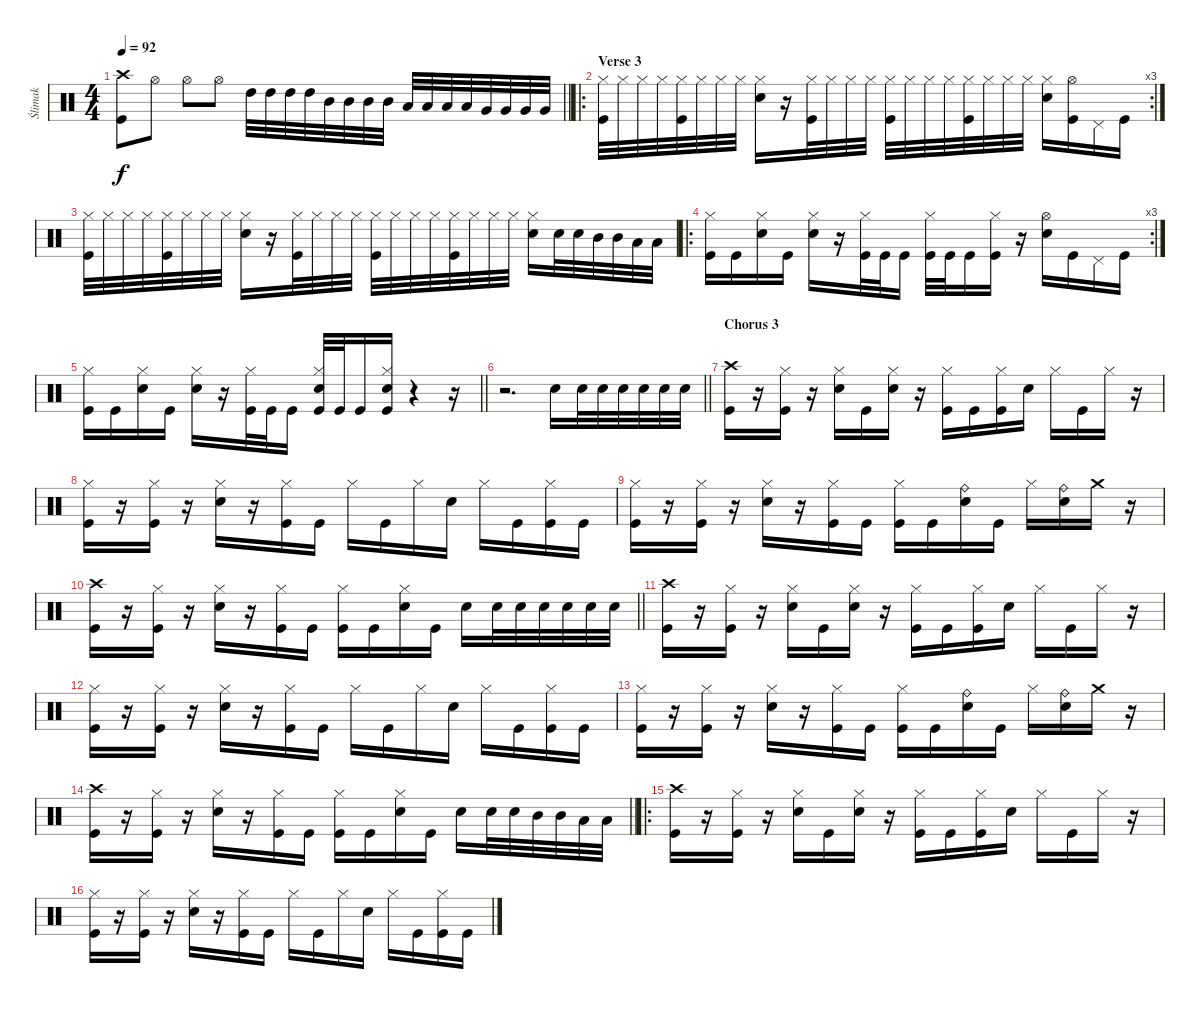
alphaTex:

\track ("Ślimak" "Ślimak") {instrument percussion}
\staff {score}
\articulation defaults
\ts (4 4)
\tempo 92
\clef neutral
\barLineRight lightlight
\ks c
("Crash high (hit)" "Kick (hit)").8{dy f} "Hi-Hat (open)".8 "Hi-Hat (open)".8 "Hi-Hat (open)".8 "High Tom (hit)".32 "High Tom (hit)".32 "High Tom (hit)".32 "High Tom (hit)".32 "Mid Tom (hit)".32 "Mid Tom (hit)".32 "Mid Tom (hit)".32 "Mid Tom (hit)".32 "Low Tom (hit)".32 "Low Tom (hit)".32 "Low Tom (hit)".32 "Low Tom (hit)".32 "Very Low Tom (hit)".32 "Very Low Tom (hit)".32 "Very Low Tom (hit)".32 "Very Low Tom (hit)".32 |
\ro
\rc 3
\section ("" "Verse 3")
("Hi-Hat (closed)" "Kick (hit)").32 "Hi-Hat (closed)".32 "Hi-Hat (closed)".32 "Hi-Hat (closed)".32 ("Hi-Hat (closed)" "Kick (hit)").32 "Hi-Hat (closed)".32 "Hi-Hat (closed)".32 "Hi-Hat (closed)".32 ("Hi-Hat (closed)" "Snare (hit) 2").16 r.16 ("Hi-Hat (closed)" "Kick (hit)").32 "Hi-Hat (closed)".32 "Hi-Hat (closed)".32 "Hi-Hat (closed)".32 ("Hi-Hat (closed)" "Kick (hit)").32 "Hi-Hat (closed)".32 "Hi-Hat (closed)".32 "Hi-Hat (closed)".32 ("Hi-Hat (closed)" "Kick (hit)").32 "Hi-Hat (closed)".32 "Hi-Hat (closed)".32 "Hi-Hat (closed)".32 ("Hi-Hat (closed)" "Snare (hit) 2").16 ("Hi-Hat (open)" "Kick (hit)").16 "Pedal Hi-Hat (hit)".16 "Kick (hit)".16 |
("Hi-Hat (closed)" "Kick (hit)").32 "Hi-Hat (closed)".32 "Hi-Hat (closed)".32 "Hi-Hat (closed)".32 ("Hi-Hat (closed)" "Kick (hit)").32 "Hi-Hat (closed)".32 "Hi-Hat (closed)".32 "Hi-Hat (closed)".32 ("Hi-Hat (closed)" "Snare (hit) 2").16 r.16 ("Hi-Hat (closed)" "Kick (hit)").32 "Hi-Hat (closed)".32 "Hi-Hat (closed)".32 "Hi-Hat (closed)".32 ("Hi-Hat (closed)" "Kick (hit)").32 "Hi-Hat (closed)".32 "Hi-Hat (closed)".32 "Hi-Hat (closed)".32 ("Hi-Hat (closed)" "Kick (hit)").32 "Hi-Hat (closed)".32 "Hi-Hat (closed)".32 "Hi-Hat (closed)".32 ("Hi-Hat (closed)" "Snare (hit) 2").16 "Snare (hit) 2".32 "Snare (hit) 2".32 "Mid Tom (hit)".32 "Mid Tom (hit)".32 "Low Tom (hit)".32 "Low Tom (hit)".32 |
\ro
\rc 3
("Hi-Hat (closed)" "Kick (hit)").16 "Kick (hit)".16 ("Hi-Hat (closed)" "Snare (hit) 2").16 "Kick (hit)".16 ("Hi-Hat (closed)" "Snare (hit) 2").16 r.16 ("Hi-Hat (closed)" "Kick (hit)").32 "Kick (hit)".32 "Kick (hit)".16 ("Hi-Hat (closed)" "Kick (hit)").32 "Kick (hit)".32 "Kick (hit)".16 ("Hi-Hat (closed)" "Kick (hit)").16 r.16 ("Hi-Hat (open)" "Snare (hit) 2").16 "Kick (hit)".16 "Pedal Hi-Hat (hit)".16 "Kick (hit)".16 |
\barLineRight lightlight
("Hi-Hat (closed)" "Kick (hit)").16 "Kick (hit)".16 ("Hi-Hat (closed)" "Snare (hit) 2").16 "Kick (hit)".16 ("Hi-Hat (closed)" "Snare (hit) 2").16 r.16 ("Hi-Hat (closed)" "Kick (hit)").32 "Kick (hit)".32 "Kick (hit)".16 ("Hi-Hat (closed)" "Snare (hit) 2" "Kick (hit)").32 "Kick (hit)".32 "Kick (hit)".16 ("Hi-Hat (closed)" "Snare (hit) 2" "Kick (hit)").16 r.4 r.16 |
\barLineRight lightlight
r.2{d} "Snare (hit) 2".16 "Snare (hit) 2".32 "Snare (hit) 2".32 "Snare (hit) 2".32 "Snare (hit) 2".32 "Snare (hit) 2".32 "Snare (hit) 2".32 |
\section ("" "Chorus 3")
("Crash high (hit)" "Kick (hit)").16 r.16 ("Hi-Hat (closed)" "Kick (hit)").16 r.16 ("Hi-Hat (closed)" "Snare (hit) 2").16 "Kick (hit)".16 ("Hi-Hat (closed)" "Snare (hit) 2").16 r.16 ("Hi-Hat (closed)" "Kick (hit)").16 "Kick (hit)".16 ("Hi-Hat (closed)" "Kick (hit)").16 "Snare (hit) 2".16 "Hi-Hat (closed)".16 "Kick (hit)".16 "Hi-Hat (closed)".16 r.16 |
("Hi-Hat (closed)" "Kick (hit)").16 r.16 ("Hi-Hat (closed)" "Kick (hit)").16 r.16 ("Hi-Hat (closed)" "Snare (hit) 2").16 r.16 ("Hi-Hat (closed)" "Kick (hit)").16 "Kick (hit)".16 "Hi-Hat (closed)".16 "Kick (hit)".16 "Hi-Hat (closed)".16 "Snare (hit) 2".16 "Hi-Hat (closed)".16 "Kick (hit)".16 ("Hi-Hat (closed)" "Kick (hit)").16 "Kick (hit)".16 |
("Hi-Hat (closed)" "Kick (hit)").16 r.16 ("Hi-Hat (closed)" "Kick (hit)").16 r.16 ("Hi-Hat (closed)" "Snare (hit) 2").16 r.16 ("Hi-Hat (closed)" "Kick (hit)").16 "Kick (hit)".16 ("Hi-Hat (closed)" "Kick (hit)").16 "Kick (hit)".16 ("Ride (bell)" "Snare (hit) 2").16 "Kick (hit)".16 "Hi-Hat (closed)".16 ("Ride (bell)" "Snare (hit) 2").16 "Crash medium (hit)".16 r.16 |
\barLineRight lightlight
("Crash high (hit)" "Kick (hit)").16 r.16 ("Hi-Hat (closed)" "Kick (hit)").16 r.16 ("Hi-Hat (closed)" "Snare (hit) 2").16 r.16 ("Hi-Hat (closed)" "Kick (hit)").16 "Kick (hit)".16 ("Hi-Hat (closed)" "Kick (hit)").16 "Kick (hit)".16 ("Hi-Hat (closed)" "Snare (hit) 2").16 "Kick (hit)".16 "Snare (hit) 2".16 "Snare (hit) 2".32 "Snare (hit) 2".32 "Snare (hit) 2".32 "Snare (hit) 2".32 "Snare (hit) 2".32 "Snare (hit) 2".32 |
("Crash high (hit)" "Kick (hit)").16 r.16 ("Hi-Hat (closed)" "Kick (hit)").16 r.16 ("Hi-Hat (closed)" "Snare (hit) 2").16 "Kick (hit)".16 ("Hi-Hat (closed)" "Snare (hit) 2").16 r.16 ("Hi-Hat (closed)" "Kick (hit)").16 "Kick (hit)".16 ("Hi-Hat (closed)" "Kick (hit)").16 "Snare (hit) 2".16 "Hi-Hat (closed)".16 "Kick (hit)".16 "Hi-Hat (closed)".16 r.16 |
("Hi-Hat (closed)" "Kick (hit)").16 r.16 ("Hi-Hat (closed)" "Kick (hit)").16 r.16 ("Hi-Hat (closed)" "Snare (hit) 2").16 r.16 ("Hi-Hat (closed)" "Kick (hit)").16 "Kick (hit)".16 "Hi-Hat (closed)".16 "Kick (hit)".16 "Hi-Hat (closed)".16 "Snare (hit) 2".16 "Hi-Hat (closed)".16 "Kick (hit)".16 ("Hi-Hat (closed)" "Kick (hit)").16 "Kick (hit)".16 |
("Hi-Hat (closed)" "Kick (hit)").16 r.16 ("Hi-Hat (closed)" "Kick (hit)").16 r.16 ("Hi-Hat (closed)" "Snare (hit) 2").16 r.16 ("Hi-Hat (closed)" "Kick (hit)").16 "Kick (hit)".16 ("Hi-Hat (closed)" "Kick (hit)").16 "Kick (hit)".16 ("Ride (bell)" "Snare (hit) 2").16 "Kick (hit)".16 "Hi-Hat (closed)".16 ("Ride (bell)" "Snare (hit) 2").16 "Crash medium (hit)".16 r.16 |
\barLineRight lightlight
("Crash high (hit)" "Kick (hit)").16 r.16 ("Hi-Hat (closed)" "Kick (hit)").16 r.16 ("Hi-Hat (closed)" "Snare (hit) 2").16 r.16 ("Hi-Hat (closed)" "Kick (hit)").16 "Kick (hit)".16 ("Hi-Hat (closed)" "Kick (hit)").16 "Kick (hit)".16 ("Hi-Hat (closed)" "Snare (hit) 2").16 "Kick (hit)".16 "Snare (hit) 2".16 "Snare (hit) 2".32 "Snare (hit) 2".32 "Mid Tom (hit)".32 "Mid Tom (hit)".32 "Low Tom (hit)".32 "Low Tom (hit)".32 |
\ro
("Crash high (hit)" "Kick (hit)").16 r.16 ("Hi-Hat (closed)" "Kick (hit)").16 r.16 ("Hi-Hat (closed)" "Snare (hit) 2").16 "Kick (hit)".16 ("Hi-Hat (closed)" "Snare (hit) 2").16 r.16 ("Hi-Hat (closed)" "Kick (hit)").16 "Kick (hit)".16 ("Hi-Hat (closed)" "Kick (hit)").16 "Snare (hit) 2".16 "Hi-Hat (closed)".16 "Kick (hit)".16 "Hi-Hat (closed)".16 r.16 |
("Hi-Hat (closed)" "Kick (hit)").16 r.16 ("Hi-Hat (closed)" "Kick (hit)").16 r.16 ("Hi-Hat (closed)" "Snare (hit) 2").16 r.16 ("Hi-Hat (closed)" "Kick (hit)").16 "Kick (hit)".16 "Hi-Hat (closed)".16 "Kick (hit)".16 "Hi-Hat (closed)".16 "Snare (hit) 2".16 "Hi-Hat (closed)".16 "Kick (hit)".16 ("Hi-Hat (closed)" "Kick (hit)").16 "Kick (hit)".16
